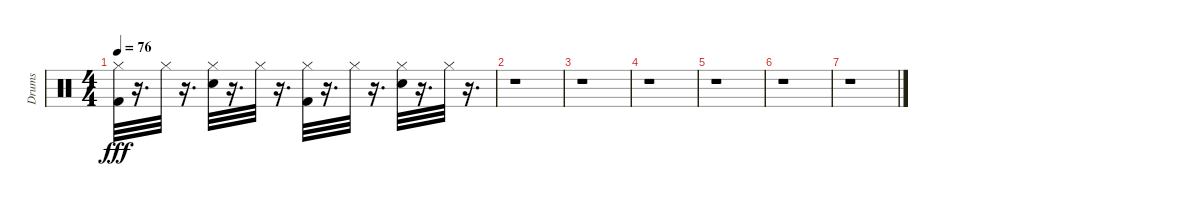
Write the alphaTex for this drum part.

\track ("Drums" "Drums") {instrument percussion}
\staff {score}
\articulation defaults
\ts (4 4)
\tempo 76
\clef neutral
\ks c
("Hi-Hat (closed)" "Kick (hit) 2").32{dy fff} r.16{d} "Hi-Hat (closed)".32 r.16{d} ("Hi-Hat (closed)" "Electric Snare (hit)").32 r.16{d} "Hi-Hat (closed)".32 r.16{d} ("Kick (hit) 2" "Hi-Hat (closed)").32 r.16{d} "Hi-Hat (closed)".32 r.16{d} ("Hi-Hat (closed)" "Electric Snare (hit)").32 r.16{d} "Hi-Hat (closed)".32 r.16{d} |
r.1 |
r.1 |
r.1 |
r.1 |
r.1 |
r.1
